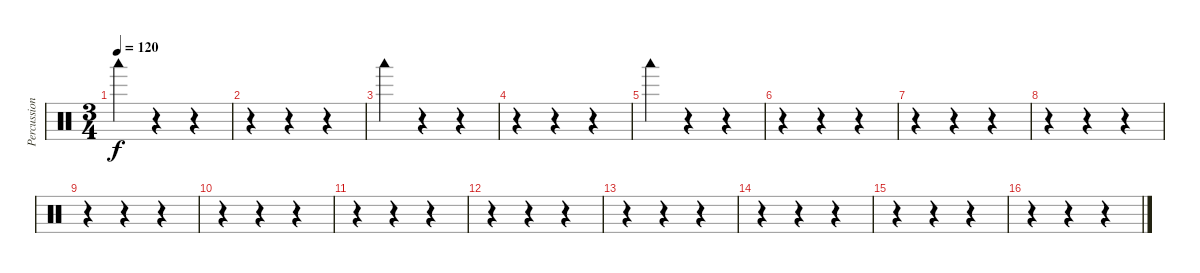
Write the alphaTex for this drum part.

\track ("Percussions" "Percussion") {instrument percussion}
\staff {score}
\articulation defaults
\ts (3 4)
\tempo 120
\clef neutral
\ks c "Woodblock low (hit)".4{dy f}
r.4 r.4 |
r.4 r.4 r.4 |
"Woodblock low (hit)".4 r.4 r.4 |
r.4 r.4 r.4 |
"Woodblock low (hit)".4 r.4 r.4 |
r.4 r.4 r.4 |
r.4 r.4 r.4 |
r.4 r.4 r.4 |
r.4 r.4 r.4 |
r.4 r.4 r.4 |
r.4 r.4 r.4 |
r.4 r.4 r.4 |
r.4 r.4 r.4 |
r.4 r.4 r.4 |
r.4 r.4 r.4 |
r.4 r.4 r.4
